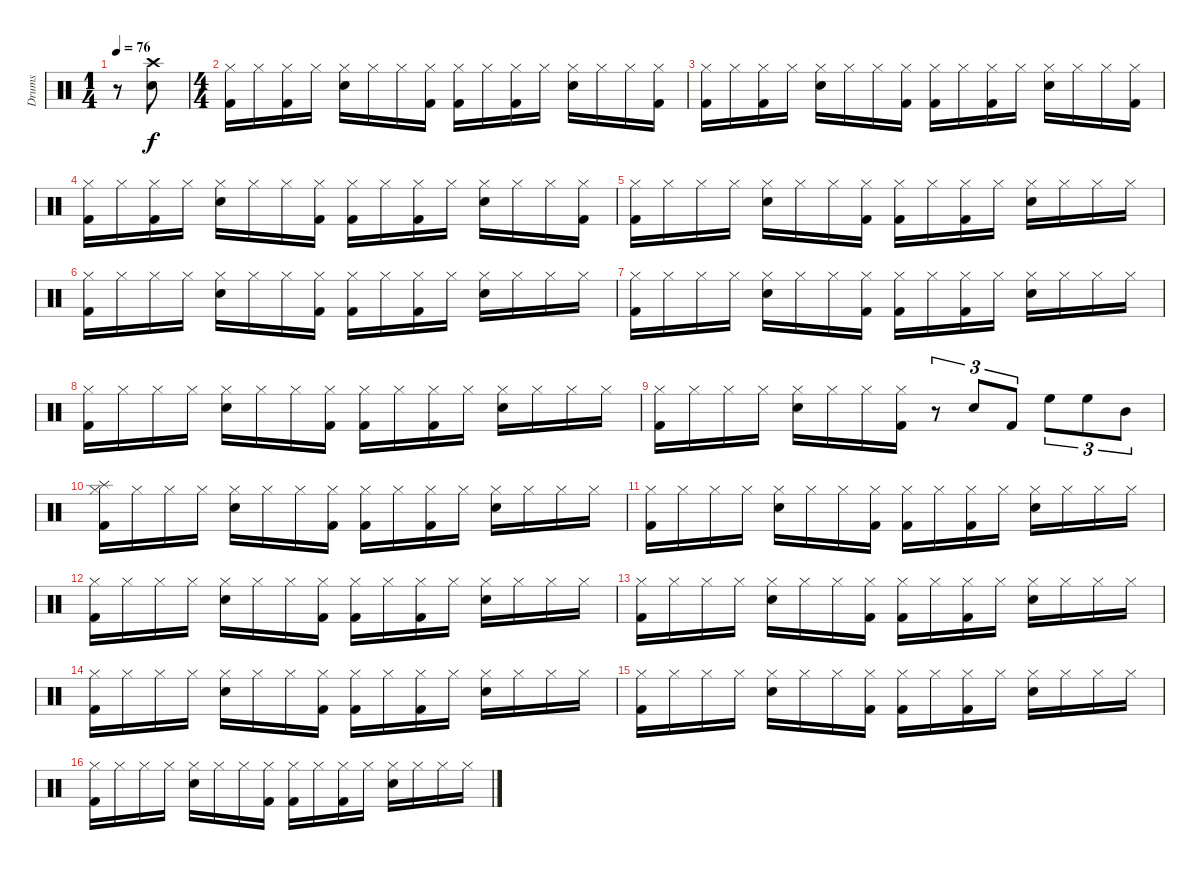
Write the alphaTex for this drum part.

\track ("Drums" "Drums") {instrument percussion}
\staff {score}
\articulation defaults
\ts (1 4)
\tempo 76
\clef neutral
\ks c
r.8{dy f} ("Crash high (hit)" "Snare (hit) 2").8 |
\ts (4 4)
("Hi-Hat (closed)" "Kick (hit) 2").16 "Hi-Hat (closed)".16 ("Hi-Hat (closed)" "Kick (hit) 2").16 "Hi-Hat (closed)".16 ("Hi-Hat (closed)" "Snare (hit) 2").16 "Hi-Hat (closed)".16 "Hi-Hat (closed)".16 ("Hi-Hat (closed)" "Kick (hit) 2").16 ("Hi-Hat (closed)" "Kick (hit) 2").16 "Hi-Hat (closed)".16 ("Hi-Hat (closed)" "Kick (hit) 2").16 "Hi-Hat (closed)".16 ("Hi-Hat (closed)" "Snare (hit) 2").16 "Hi-Hat (closed)".16 "Hi-Hat (closed)".16 ("Hi-Hat (closed)" "Kick (hit) 2").16 |
("Hi-Hat (closed)" "Kick (hit) 2").16 "Hi-Hat (closed)".16 ("Hi-Hat (closed)" "Kick (hit) 2").16 "Hi-Hat (closed)".16 ("Hi-Hat (closed)" "Snare (hit) 2").16 "Hi-Hat (closed)".16 "Hi-Hat (closed)".16 ("Hi-Hat (closed)" "Kick (hit) 2").16 ("Hi-Hat (closed)" "Kick (hit) 2").16 "Hi-Hat (closed)".16 ("Hi-Hat (closed)" "Kick (hit) 2").16 "Hi-Hat (closed)".16 ("Hi-Hat (closed)" "Snare (hit) 2").16 "Hi-Hat (closed)".16 "Hi-Hat (closed)".16 ("Hi-Hat (closed)" "Kick (hit) 2").16 |
("Hi-Hat (closed)" "Kick (hit) 2").16 "Hi-Hat (closed)".16 ("Hi-Hat (closed)" "Kick (hit) 2").16 "Hi-Hat (closed)".16 ("Hi-Hat (closed)" "Snare (hit) 2").16 "Hi-Hat (closed)".16 "Hi-Hat (closed)".16 ("Hi-Hat (closed)" "Kick (hit) 2").16 ("Hi-Hat (closed)" "Kick (hit) 2").16 "Hi-Hat (closed)".16 ("Hi-Hat (closed)" "Kick (hit) 2").16 "Hi-Hat (closed)".16 ("Hi-Hat (closed)" "Snare (hit) 2").16 "Hi-Hat (closed)".16 "Hi-Hat (closed)".16 ("Hi-Hat (closed)" "Kick (hit) 2").16 |
("Hi-Hat (closed)" "Kick (hit) 2").16 "Hi-Hat (closed)".16 "Hi-Hat (closed)".16 "Hi-Hat (closed)".16 ("Hi-Hat (closed)" "Snare (hit) 2").16 "Hi-Hat (closed)".16 "Hi-Hat (closed)".16 ("Hi-Hat (closed)" "Kick (hit) 2").16 ("Hi-Hat (closed)" "Kick (hit) 2").16 "Hi-Hat (closed)".16 ("Hi-Hat (closed)" "Kick (hit) 2").16 "Hi-Hat (closed)".16 ("Hi-Hat (closed)" "Snare (hit) 2").16 "Hi-Hat (closed)".16 "Hi-Hat (closed)".16 "Hi-Hat (closed)".16 |
("Hi-Hat (closed)" "Kick (hit) 2").16 "Hi-Hat (closed)".16 "Hi-Hat (closed)".16 "Hi-Hat (closed)".16 ("Hi-Hat (closed)" "Snare (hit) 2").16 "Hi-Hat (closed)".16 "Hi-Hat (closed)".16 ("Hi-Hat (closed)" "Kick (hit) 2").16 ("Hi-Hat (closed)" "Kick (hit) 2").16 "Hi-Hat (closed)".16 ("Hi-Hat (closed)" "Kick (hit) 2").16 "Hi-Hat (closed)".16 ("Hi-Hat (closed)" "Snare (hit) 2").16 "Hi-Hat (closed)".16 "Hi-Hat (closed)".16 "Hi-Hat (closed)".16 |
("Hi-Hat (closed)" "Kick (hit) 2").16 "Hi-Hat (closed)".16 "Hi-Hat (closed)".16 "Hi-Hat (closed)".16 ("Hi-Hat (closed)" "Snare (hit) 2").16 "Hi-Hat (closed)".16 "Hi-Hat (closed)".16 ("Hi-Hat (closed)" "Kick (hit) 2").16 ("Hi-Hat (closed)" "Kick (hit) 2").16 "Hi-Hat (closed)".16 ("Hi-Hat (closed)" "Kick (hit) 2").16 "Hi-Hat (closed)".16 ("Hi-Hat (closed)" "Snare (hit) 2").16 "Hi-Hat (closed)".16 "Hi-Hat (closed)".16 "Hi-Hat (closed)".16 |
("Hi-Hat (closed)" "Kick (hit) 2").16 "Hi-Hat (closed)".16 "Hi-Hat (closed)".16 "Hi-Hat (closed)".16 ("Hi-Hat (closed)" "Snare (hit) 2").16 "Hi-Hat (closed)".16 "Hi-Hat (closed)".16 ("Hi-Hat (closed)" "Kick (hit) 2").16 ("Hi-Hat (closed)" "Kick (hit) 2").16 "Hi-Hat (closed)".16 ("Hi-Hat (closed)" "Kick (hit) 2").16 "Hi-Hat (closed)".16 ("Hi-Hat (closed)" "Snare (hit) 2").16 "Hi-Hat (closed)".16 "Hi-Hat (closed)".16 "Hi-Hat (closed)".16 |
("Hi-Hat (closed)" "Kick (hit) 2").16 "Hi-Hat (closed)".16 "Hi-Hat (closed)".16 "Hi-Hat (closed)".16 ("Hi-Hat (closed)" "Snare (hit) 2").16 "Hi-Hat (closed)".16 "Hi-Hat (closed)".16 ("Hi-Hat (closed)" "Kick (hit) 2").16 r.8{tu (3 2)} "Snare (hit) 2".8{tu (3 2)} "Kick (hit) 2".8{tu (3 2)} "High Floor Tom (hit)".8{tu (3 2)} "High Floor Tom (hit)".8{tu (3 2)} "Mid Tom (hit)".8{tu (3 2)} |
("Hi-Hat (closed)" "Kick (hit) 2" "Splash (hit)").16 "Hi-Hat (closed)".16 "Hi-Hat (closed)".16 "Hi-Hat (closed)".16 ("Hi-Hat (closed)" "Snare (hit) 2").16 "Hi-Hat (closed)".16 "Hi-Hat (closed)".16 ("Hi-Hat (closed)" "Kick (hit) 2").16 ("Hi-Hat (closed)" "Kick (hit) 2").16 "Hi-Hat (closed)".16 ("Hi-Hat (closed)" "Kick (hit) 2").16 "Hi-Hat (closed)".16 ("Hi-Hat (closed)" "Snare (hit) 2").16 "Hi-Hat (closed)".16 "Hi-Hat (closed)".16 "Hi-Hat (closed)".16 |
("Hi-Hat (closed)" "Kick (hit) 2").16 "Hi-Hat (closed)".16 "Hi-Hat (closed)".16 "Hi-Hat (closed)".16 ("Hi-Hat (closed)" "Snare (hit) 2").16 "Hi-Hat (closed)".16 "Hi-Hat (closed)".16 ("Hi-Hat (closed)" "Kick (hit) 2").16 ("Hi-Hat (closed)" "Kick (hit) 2").16 "Hi-Hat (closed)".16 ("Hi-Hat (closed)" "Kick (hit) 2").16 "Hi-Hat (closed)".16 ("Hi-Hat (closed)" "Snare (hit) 2").16 "Hi-Hat (closed)".16 "Hi-Hat (closed)".16 "Hi-Hat (closed)".16 |
("Hi-Hat (closed)" "Kick (hit) 2").16 "Hi-Hat (closed)".16 "Hi-Hat (closed)".16 "Hi-Hat (closed)".16 ("Hi-Hat (closed)" "Snare (hit) 2").16 "Hi-Hat (closed)".16 "Hi-Hat (closed)".16 ("Hi-Hat (closed)" "Kick (hit) 2").16 ("Hi-Hat (closed)" "Kick (hit) 2").16 "Hi-Hat (closed)".16 ("Hi-Hat (closed)" "Kick (hit) 2").16 "Hi-Hat (closed)".16 ("Hi-Hat (closed)" "Snare (hit) 2").16 "Hi-Hat (closed)".16 "Hi-Hat (closed)".16 "Hi-Hat (closed)".16 |
("Hi-Hat (closed)" "Kick (hit) 2").16 "Hi-Hat (closed)".16 "Hi-Hat (closed)".16 "Hi-Hat (closed)".16 ("Hi-Hat (closed)" "Snare (hit) 2").16 "Hi-Hat (closed)".16 "Hi-Hat (closed)".16 ("Hi-Hat (closed)" "Kick (hit) 2").16 ("Hi-Hat (closed)" "Kick (hit) 2").16 "Hi-Hat (closed)".16 ("Hi-Hat (closed)" "Kick (hit) 2").16 "Hi-Hat (closed)".16 ("Hi-Hat (closed)" "Snare (hit) 2").16 "Hi-Hat (closed)".16 "Hi-Hat (closed)".16 "Hi-Hat (closed)".16 |
("Hi-Hat (closed)" "Kick (hit) 2").16 "Hi-Hat (closed)".16 "Hi-Hat (closed)".16 "Hi-Hat (closed)".16 ("Hi-Hat (closed)" "Snare (hit) 2").16 "Hi-Hat (closed)".16 "Hi-Hat (closed)".16 ("Hi-Hat (closed)" "Kick (hit) 2").16 ("Hi-Hat (closed)" "Kick (hit) 2").16 "Hi-Hat (closed)".16 ("Hi-Hat (closed)" "Kick (hit) 2").16 "Hi-Hat (closed)".16 ("Hi-Hat (closed)" "Snare (hit) 2").16 "Hi-Hat (closed)".16 "Hi-Hat (closed)".16 "Hi-Hat (closed)".16 |
("Hi-Hat (closed)" "Kick (hit) 2").16 "Hi-Hat (closed)".16 "Hi-Hat (closed)".16 "Hi-Hat (closed)".16 ("Hi-Hat (closed)" "Snare (hit) 2").16 "Hi-Hat (closed)".16 "Hi-Hat (closed)".16 ("Hi-Hat (closed)" "Kick (hit) 2").16 ("Hi-Hat (closed)" "Kick (hit) 2").16 "Hi-Hat (closed)".16 ("Hi-Hat (closed)" "Kick (hit) 2").16 "Hi-Hat (closed)".16 ("Hi-Hat (closed)" "Snare (hit) 2").16 "Hi-Hat (closed)".16 "Hi-Hat (closed)".16 "Hi-Hat (closed)".16 |
("Hi-Hat (closed)" "Kick (hit) 2").16 "Hi-Hat (closed)".16 "Hi-Hat (closed)".16 "Hi-Hat (closed)".16 ("Hi-Hat (closed)" "Snare (hit) 2").16 "Hi-Hat (closed)".16 "Hi-Hat (closed)".16 ("Hi-Hat (closed)" "Kick (hit) 2").16 ("Hi-Hat (closed)" "Kick (hit) 2").16 "Hi-Hat (closed)".16 ("Hi-Hat (closed)" "Kick (hit) 2").16 "Hi-Hat (closed)".16 ("Hi-Hat (closed)" "Snare (hit) 2").16 "Hi-Hat (closed)".16 "Hi-Hat (closed)".16 "Hi-Hat (closed)".16
